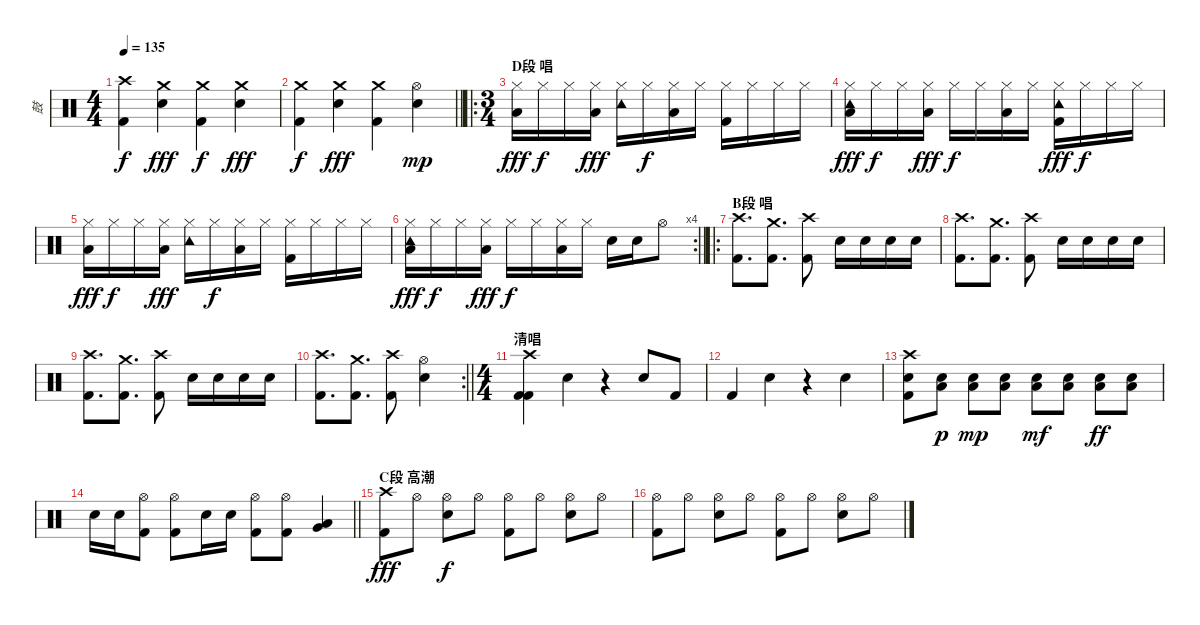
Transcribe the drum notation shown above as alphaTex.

\track ("鼓" "鼓") {instrument percussion}
\staff {score}
\articulation defaults
\ts (4 4)
\tempo 135
\clef neutral
\ks c
("Crash high (hit)" "Kick (hit) 2").4{dy f} ("Crash medium (hit)" "Electric Snare (hit)").4{dy fff} ("Crash medium (hit)" "Kick (hit) 2").4{dy f} ("Crash medium (hit)" "Electric Snare (hit)").4{dy fff} |
\barLineRight lightlight
("Crash medium (hit)" "Kick (hit) 2").4{dy f} ("Crash medium (hit)" "Electric Snare (hit)").4{dy fff} ("Crash medium (hit)" "Kick (hit) 2").4 ("Hi-Hat (open)" "Electric Snare (hit)").4{dy mp} |
\ro
\ts (3 4)
\section ("" "D段 唱")
("Hi-Hat (closed)" "Low Floor Tom (hit)").16{dy fff} "Hi-Hat (closed)".16{dy f} "Hi-Hat (closed)".16 ("Hi-Hat (closed)" "Low Floor Tom (hit)").16{dy fff} ("Tambourine (hit)" "Hi-Hat (closed)").16 "Hi-Hat (closed)".16{dy f} ("Hi-Hat (closed)" "Low Floor Tom (hit)").16 "Hi-Hat (closed)".16 ("Hi-Hat (closed)" "Kick (hit) 2").16 "Hi-Hat (closed)".16 "Hi-Hat (closed)".16 "Hi-Hat (closed)".16 |
("Tambourine (hit)" "Hi-Hat (closed)" "Low Floor Tom (hit)").16{dy fff} "Hi-Hat (closed)".16{dy f} "Hi-Hat (closed)".16 ("Hi-Hat (closed)" "Low Floor Tom (hit)").16{dy fff} "Hi-Hat (closed)".16{dy f} "Hi-Hat (closed)".16 ("Hi-Hat (closed)" "Low Floor Tom (hit)").16 "Hi-Hat (closed)".16 ("Tambourine (hit)" "Hi-Hat (closed)" "Kick (hit) 2").16{dy fff} "Hi-Hat (closed)".16{dy f} "Hi-Hat (closed)".16 "Hi-Hat (closed)".16 |
("Hi-Hat (closed)" "Low Floor Tom (hit)").16{dy fff} "Hi-Hat (closed)".16{dy f} "Hi-Hat (closed)".16 ("Hi-Hat (closed)" "Low Floor Tom (hit)").16{dy fff} ("Tambourine (hit)" "Hi-Hat (closed)").16 "Hi-Hat (closed)".16{dy f} ("Hi-Hat (closed)" "Low Floor Tom (hit)").16 "Hi-Hat (closed)".16 ("Hi-Hat (closed)" "Kick (hit) 2").16 "Hi-Hat (closed)".16 "Hi-Hat (closed)".16 "Hi-Hat (closed)".16 |
\rc 4
\barLineRight lightlight
("Tambourine (hit)" "Hi-Hat (closed)" "Low Floor Tom (hit)").16{dy fff} "Hi-Hat (closed)".16{dy f} "Hi-Hat (closed)".16 ("Hi-Hat (closed)" "Low Floor Tom (hit)").16{dy fff} "Hi-Hat (closed)".16{dy f} "Hi-Hat (closed)".16 ("Hi-Hat (closed)" "Low Floor Tom (hit)").16 "Hi-Hat (closed)".16 "Electric Snare (hit)".16 "Electric Snare (hit)".16 "Hi-Hat (open)".8 |
\ro
\section ("" "B段 唱")
("Crash high (hit)" "Kick (hit) 2").8{d} ("Crash medium (hit)" "Kick (hit) 2").8{d} ("Crash high (hit)" "Kick (hit) 2").8 "Electric Snare (hit)".16 "Electric Snare (hit)".16 "Electric Snare (hit)".16 "Electric Snare (hit)".16 |
("Crash high (hit)" "Kick (hit) 2").8{d} ("Crash medium (hit)" "Kick (hit) 2").8{d} ("Crash high (hit)" "Kick (hit) 2").8 "Electric Snare (hit)".16 "Electric Snare (hit)".16 "Electric Snare (hit)".16 "Electric Snare (hit)".16 |
("Crash high (hit)" "Kick (hit) 2").8{d} ("Crash medium (hit)" "Kick (hit) 2").8{d} ("Crash high (hit)" "Kick (hit) 2").8 "Electric Snare (hit)".16 "Electric Snare (hit)".16 "Electric Snare (hit)".16 "Electric Snare (hit)".16 |
\rc 2
\barLineRight lightlight
("Crash high (hit)" "Kick (hit) 2").8{d} ("Crash medium (hit)" "Kick (hit) 2").8{d} ("Crash high (hit)" "Kick (hit) 2").8 ("Hi-Hat (open)" "Electric Snare (hit)").4 |
\ts (4 4)
\section ("" "清唱")
("Crash high (hit)" "Kick (hit) 2" "Kick (hit) 2").4 "Electric Snare (hit)".4 r.4 "Electric Snare (hit)".8 "Kick (hit) 2".8 |
"Kick (hit) 2".4 "Electric Snare (hit)".4 r.4 "Electric Snare (hit)".4 |
("Crash high (hit)" "Electric Snare (hit)" "Kick (hit) 2").8 ("Electric Snare (hit)" "Low Floor Tom (hit)").8{dy p} ("Electric Snare (hit)" "Low Floor Tom (hit)").8{dy mp} ("Electric Snare (hit)" "Low Floor Tom (hit)").8 ("Electric Snare (hit)" "Low Floor Tom (hit)").8{dy mf} ("Electric Snare (hit)" "Low Floor Tom (hit)").8 ("Electric Snare (hit)" "Low Floor Tom (hit)").8{dy ff} ("Electric Snare (hit)" "Low Floor Tom (hit)").8 |
\barLineRight lightlight "Electric Snare (hit)".16 "Electric Snare (hit)".16
("Hi-Hat (open)" "Kick (hit) 2").8 ("Hi-Hat (open)" "Kick (hit) 2").8 "Electric Snare (hit)".16 "Electric Snare (hit)".16 ("Hi-Hat (open)" "Kick (hit) 2").8 ("Hi-Hat (open)" "Kick (hit) 2").8 ("Low Tom (hit)" "Very Low Tom (hit)").4 |
\section ("" "C段 高潮")
("Crash high (hit)" "Kick (hit) 2").8{dy fff} "Hi-Hat (open)".8 ("Hi-Hat (open)" "Electric Snare (hit)").8{dy f} "Hi-Hat (open)".8 ("Hi-Hat (open)" "Kick (hit) 2").8 "Hi-Hat (open)".8 ("Hi-Hat (open)" "Electric Snare (hit)").8 "Hi-Hat (open)".8 |
("Hi-Hat (open)" "Kick (hit) 2").8 "Hi-Hat (open)".8 ("Hi-Hat (open)" "Electric Snare (hit)").8 "Hi-Hat (open)".8 ("Hi-Hat (open)" "Kick (hit) 2").8 "Hi-Hat (open)".8 ("Hi-Hat (open)" "Electric Snare (hit)").8 "Hi-Hat (open)".8
